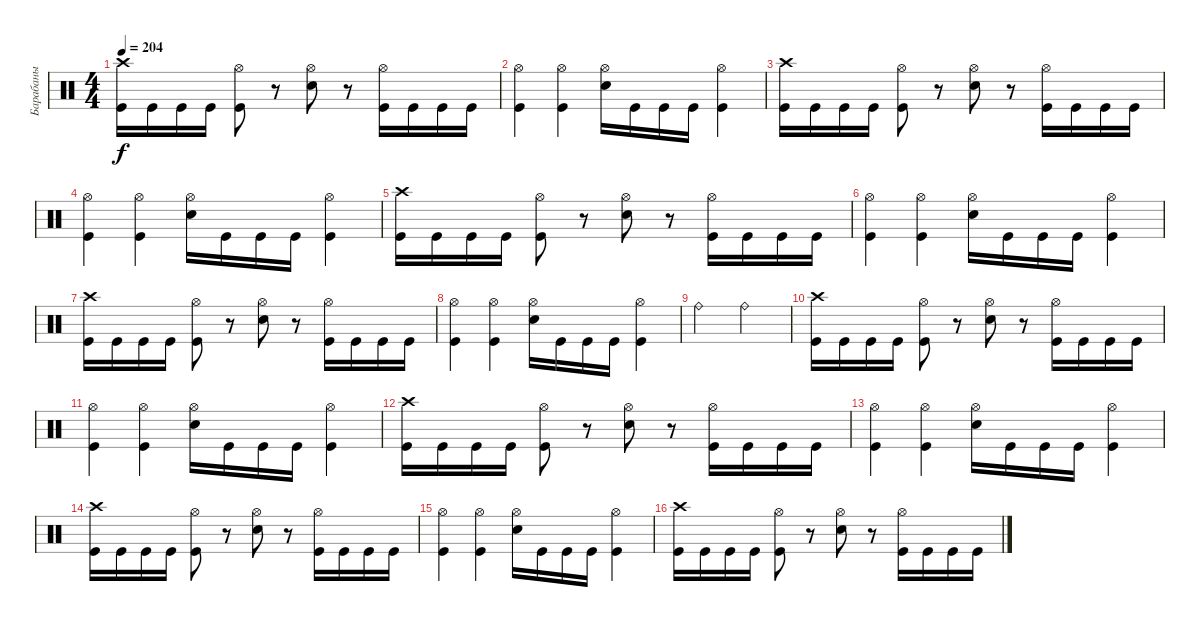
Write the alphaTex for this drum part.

\track ("Барабаны" "Барабаны") {instrument percussion}
\staff {score}
\articulation defaults
\ts (4 4)
\tempo 204
\clef neutral
\ks c
("Crash high (hit)" "Kick (hit)").16{dy f} "Kick (hit)".16 "Kick (hit)".16 "Kick (hit)".16 ("Hi-Hat (open)" "Kick (hit)").8 r.8 ("Hi-Hat (open)" "Electric Snare (hit)").8 r.8 ("Hi-Hat (open)" "Kick (hit)").16 "Kick (hit)".16 "Kick (hit)".16 "Kick (hit)".16 |
("Hi-Hat (open)" "Kick (hit)").4 ("Hi-Hat (open)" "Kick (hit)").4 ("Hi-Hat (open)" "Electric Snare (hit)").16 "Kick (hit)".16 "Kick (hit)".16 "Kick (hit)".16 ("Hi-Hat (open)" "Kick (hit)").4 |
("Crash high (hit)" "Kick (hit)").16 "Kick (hit)".16 "Kick (hit)".16 "Kick (hit)".16 ("Hi-Hat (open)" "Kick (hit)").8 r.8 ("Hi-Hat (open)" "Electric Snare (hit)").8 r.8 ("Hi-Hat (open)" "Kick (hit)").16 "Kick (hit)".16 "Kick (hit)".16 "Kick (hit)".16 |
("Hi-Hat (open)" "Kick (hit)").4 ("Hi-Hat (open)" "Kick (hit)").4 ("Hi-Hat (open)" "Electric Snare (hit)").16 "Kick (hit)".16 "Kick (hit)".16 "Kick (hit)".16 ("Hi-Hat (open)" "Kick (hit)").4 |
("Crash high (hit)" "Kick (hit)").16 "Kick (hit)".16 "Kick (hit)".16 "Kick (hit)".16 ("Hi-Hat (open)" "Kick (hit)").8 r.8 ("Hi-Hat (open)" "Electric Snare (hit)").8 r.8 ("Hi-Hat (open)" "Kick (hit)").16 "Kick (hit)".16 "Kick (hit)".16 "Kick (hit)".16 |
("Hi-Hat (open)" "Kick (hit)").4 ("Hi-Hat (open)" "Kick (hit)").4 ("Hi-Hat (open)" "Electric Snare (hit)").16 "Kick (hit)".16 "Kick (hit)".16 "Kick (hit)".16 ("Hi-Hat (open)" "Kick (hit)").4 |
("Crash high (hit)" "Kick (hit)").16 "Kick (hit)".16 "Kick (hit)".16 "Kick (hit)".16 ("Hi-Hat (open)" "Kick (hit)").8 r.8 ("Hi-Hat (open)" "Electric Snare (hit)").8 r.8 ("Hi-Hat (open)" "Kick (hit)").16 "Kick (hit)".16 "Kick (hit)".16 "Kick (hit)".16 |
("Hi-Hat (open)" "Kick (hit)").4 ("Hi-Hat (open)" "Kick (hit)").4 ("Hi-Hat (open)" "Electric Snare (hit)").16 "Kick (hit)".16 "Kick (hit)".16 "Kick (hit)".16 ("Hi-Hat (open)" "Kick (hit)").4 |
"Ride (bell)".2 "Ride (bell)".2 |
("Crash high (hit)" "Kick (hit)").16 "Kick (hit)".16 "Kick (hit)".16 "Kick (hit)".16 ("Hi-Hat (open)" "Kick (hit)").8 r.8 ("Hi-Hat (open)" "Electric Snare (hit)").8 r.8 ("Hi-Hat (open)" "Kick (hit)").16 "Kick (hit)".16 "Kick (hit)".16 "Kick (hit)".16 |
("Hi-Hat (open)" "Kick (hit)").4 ("Hi-Hat (open)" "Kick (hit)").4 ("Hi-Hat (open)" "Electric Snare (hit)").16 "Kick (hit)".16 "Kick (hit)".16 "Kick (hit)".16 ("Hi-Hat (open)" "Kick (hit)").4 |
("Crash high (hit)" "Kick (hit)").16 "Kick (hit)".16 "Kick (hit)".16 "Kick (hit)".16 ("Hi-Hat (open)" "Kick (hit)").8 r.8 ("Hi-Hat (open)" "Electric Snare (hit)").8 r.8 ("Hi-Hat (open)" "Kick (hit)").16 "Kick (hit)".16 "Kick (hit)".16 "Kick (hit)".16 |
("Hi-Hat (open)" "Kick (hit)").4 ("Hi-Hat (open)" "Kick (hit)").4 ("Hi-Hat (open)" "Electric Snare (hit)").16 "Kick (hit)".16 "Kick (hit)".16 "Kick (hit)".16 ("Hi-Hat (open)" "Kick (hit)").4 |
("Crash high (hit)" "Kick (hit)").16 "Kick (hit)".16 "Kick (hit)".16 "Kick (hit)".16 ("Hi-Hat (open)" "Kick (hit)").8 r.8 ("Hi-Hat (open)" "Electric Snare (hit)").8 r.8 ("Hi-Hat (open)" "Kick (hit)").16 "Kick (hit)".16 "Kick (hit)".16 "Kick (hit)".16 |
("Hi-Hat (open)" "Kick (hit)").4 ("Hi-Hat (open)" "Kick (hit)").4 ("Hi-Hat (open)" "Electric Snare (hit)").16 "Kick (hit)".16 "Kick (hit)".16 "Kick (hit)".16 ("Hi-Hat (open)" "Kick (hit)").4 |
("Crash high (hit)" "Kick (hit)").16 "Kick (hit)".16 "Kick (hit)".16 "Kick (hit)".16 ("Hi-Hat (open)" "Kick (hit)").8 r.8 ("Hi-Hat (open)" "Electric Snare (hit)").8 r.8 ("Hi-Hat (open)" "Kick (hit)").16 "Kick (hit)".16 "Kick (hit)".16 "Kick (hit)".16
